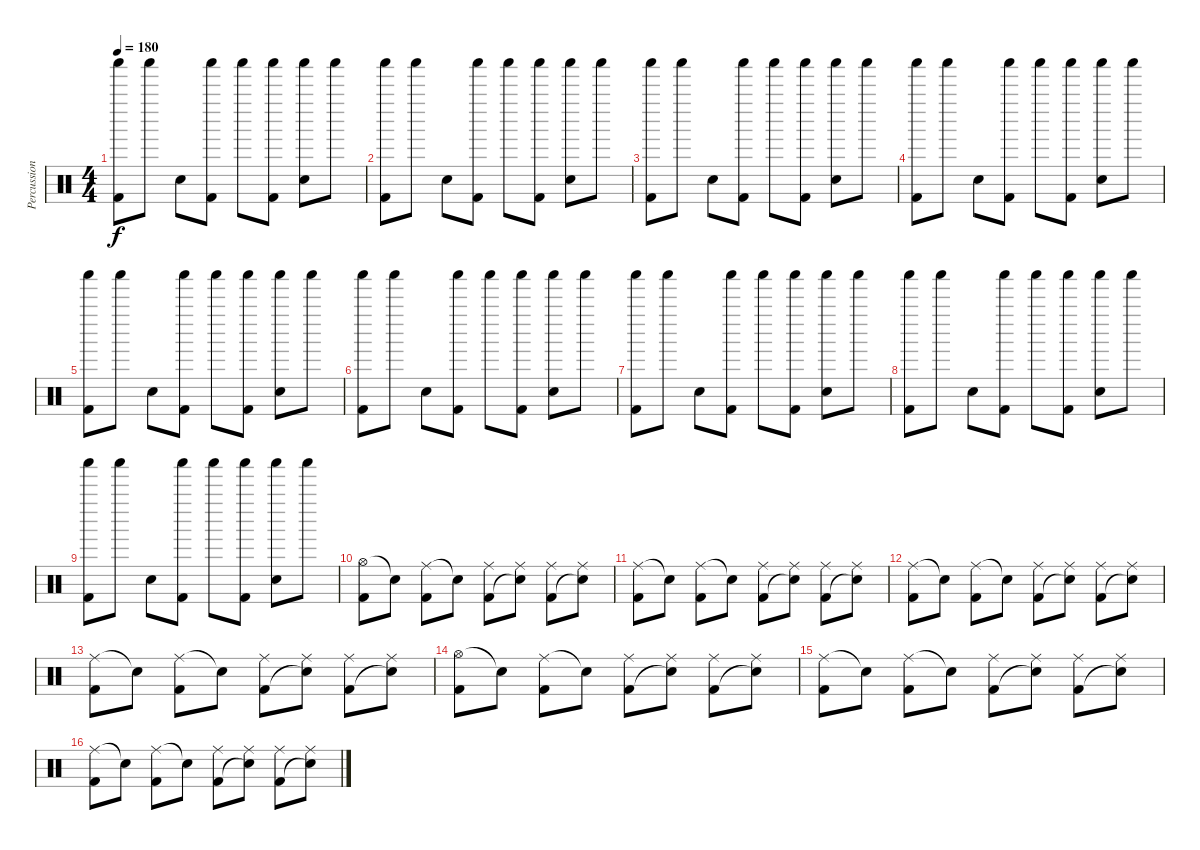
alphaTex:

\track ("Percussion" "Percussion") {instrument percussion}
\staff {score}
\articulation defaults
\ts (4 4)
\tempo 180
\clef neutral
\ks c
("Shaker (hit)" "Kick (hit) 2").8{dy f} "Shaker (hit)".8 "Snare (hit) 2".8 ("Shaker (hit)" "Kick (hit) 2").8 "Shaker (hit)".8 ("Shaker (hit)" "Kick (hit) 2").8 ("Shaker (hit)" "Snare (hit) 2").8 "Shaker (hit)".8 |
("Shaker (hit)" "Kick (hit) 2").8 "Shaker (hit)".8 "Snare (hit) 2".8 ("Shaker (hit)" "Kick (hit) 2").8 "Shaker (hit)".8 ("Shaker (hit)" "Kick (hit) 2").8 ("Shaker (hit)" "Snare (hit) 2").8 "Shaker (hit)".8 |
("Shaker (hit)" "Kick (hit) 2").8 "Shaker (hit)".8 "Snare (hit) 2".8 ("Shaker (hit)" "Kick (hit) 2").8 "Shaker (hit)".8 ("Shaker (hit)" "Kick (hit) 2").8 ("Shaker (hit)" "Snare (hit) 2").8 "Shaker (hit)".8 |
("Shaker (hit)" "Kick (hit) 2").8 "Shaker (hit)".8 "Snare (hit) 2".8 ("Shaker (hit)" "Kick (hit) 2").8 "Shaker (hit)".8 ("Shaker (hit)" "Kick (hit) 2").8 ("Shaker (hit)" "Snare (hit) 2").8 "Shaker (hit)".8 |
("Shaker (hit)" "Kick (hit) 2").8 "Shaker (hit)".8 "Snare (hit) 2".8 ("Shaker (hit)" "Kick (hit) 2").8 "Shaker (hit)".8 ("Shaker (hit)" "Kick (hit) 2").8 ("Shaker (hit)" "Snare (hit) 2").8 "Shaker (hit)".8 |
("Shaker (hit)" "Kick (hit) 2").8 "Shaker (hit)".8 "Snare (hit) 2".8 ("Shaker (hit)" "Kick (hit) 2").8 "Shaker (hit)".8 ("Shaker (hit)" "Kick (hit) 2").8 ("Shaker (hit)" "Snare (hit) 2").8 "Shaker (hit)".8 |
("Shaker (hit)" "Kick (hit) 2").8 "Shaker (hit)".8 "Snare (hit) 2".8 ("Shaker (hit)" "Kick (hit) 2").8 "Shaker (hit)".8 ("Shaker (hit)" "Kick (hit) 2").8 ("Shaker (hit)" "Snare (hit) 2").8 "Shaker (hit)".8 |
("Shaker (hit)" "Kick (hit) 2").8 "Shaker (hit)".8 "Snare (hit) 2".8 ("Shaker (hit)" "Kick (hit) 2").8 "Shaker (hit)".8 ("Shaker (hit)" "Kick (hit) 2").8 ("Shaker (hit)" "Snare (hit) 2").8 "Shaker (hit)".8 |
("Shaker (hit)" "Kick (hit) 2").8 "Shaker (hit)".8 "Snare (hit) 2".8 ("Shaker (hit)" "Kick (hit) 2").8 "Shaker (hit)".8 ("Shaker (hit)" "Kick (hit) 2").8 ("Shaker (hit)" "Snare (hit) 2").8 "Shaker (hit)".8 |
("Hi-Hat (open)" "Kick (hit) 2").8 "Snare (hit)"{t}.8 ("Ride (middle)" "Kick (hit) 2").8 "Snare (hit)"{t}.8 ("Ride (middle)" "Kick (hit) 2").8 ("Ride (middle)" "Snare (hit)"{t}).8 ("Ride (middle)" "Kick (hit) 2").8 ("Ride (middle)" "Snare (hit)"{t}).8 |
("Ride (middle)" "Kick (hit) 2").8 "Snare (hit)"{t}.8 ("Ride (middle)" "Kick (hit) 2").8 "Snare (hit)"{t}.8 ("Ride (middle)" "Kick (hit) 2").8 ("Ride (middle)" "Snare (hit)"{t}).8 ("Ride (middle)" "Kick (hit) 2").8 ("Ride (middle)" "Snare (hit)"{t}).8 |
("Ride (middle)" "Kick (hit) 2").8 "Snare (hit)"{t}.8 ("Ride (middle)" "Kick (hit) 2").8 "Snare (hit)"{t}.8 ("Ride (middle)" "Kick (hit) 2").8 ("Ride (middle)" "Snare (hit)"{t}).8 ("Ride (middle)" "Kick (hit) 2").8 ("Ride (middle)" "Snare (hit)"{t}).8 |
("Ride (middle)" "Kick (hit) 2").8 "Snare (hit)"{t}.8 ("Ride (middle)" "Kick (hit) 2").8 "Snare (hit)"{t}.8 ("Ride (middle)" "Kick (hit) 2").8 ("Ride (middle)" "Snare (hit)"{t}).8 ("Ride (middle)" "Kick (hit) 2").8 ("Ride (middle)" "Snare (hit)"{t}).8 |
("Hi-Hat (open)" "Kick (hit) 2").8 "Snare (hit)"{t}.8 ("Ride (middle)" "Kick (hit) 2").8 "Snare (hit)"{t}.8 ("Ride (middle)" "Kick (hit) 2").8 ("Ride (middle)" "Snare (hit)"{t}).8 ("Ride (middle)" "Kick (hit) 2").8 ("Ride (middle)" "Snare (hit)"{t}).8 |
("Ride (middle)" "Kick (hit) 2").8 "Snare (hit)"{t}.8 ("Ride (middle)" "Kick (hit) 2").8 "Snare (hit)"{t}.8 ("Ride (middle)" "Kick (hit) 2").8 ("Ride (middle)" "Snare (hit)"{t}).8 ("Ride (middle)" "Kick (hit) 2").8 ("Ride (middle)" "Snare (hit)"{t}).8 |
("Ride (middle)" "Kick (hit) 2").8 "Snare (hit)"{t}.8 ("Ride (middle)" "Kick (hit) 2").8 "Snare (hit)"{t}.8 ("Ride (middle)" "Kick (hit) 2").8 ("Ride (middle)" "Snare (hit)"{t}).8 ("Ride (middle)" "Kick (hit) 2").8 ("Ride (middle)" "Snare (hit)"{t}).8
